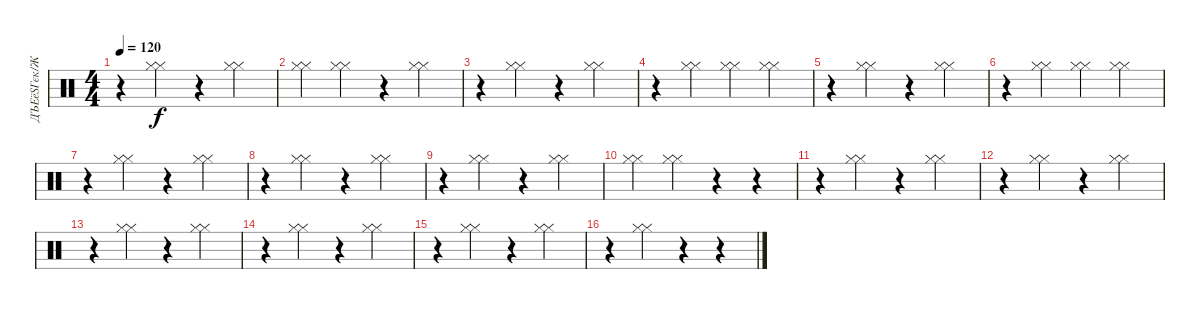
\track ("ДЪЕёЅГєк/ЖК" "ДЪЕёЅГєк/Ж") {instrument percussion}
\staff {score}
\articulation defaults
\ts (4 4)
\tempo 120
\clef neutral
\ks c
r.4{dy f} ("Hi-Hat (closed)" "Hi-Hat (closed)").4 r.4 ("Hi-Hat (closed)" "Hi-Hat (closed)").4 |
("Hi-Hat (closed)" "Hi-Hat (closed)").4 ("Hi-Hat (closed)" "Hi-Hat (closed)").4 r.4 ("Hi-Hat (closed)" "Hi-Hat (closed)").4 |
r.4 ("Hi-Hat (closed)" "Hi-Hat (closed)").4 r.4 ("Hi-Hat (closed)" "Hi-Hat (closed)").4 |
r.4 ("Hi-Hat (closed)" "Hi-Hat (closed)").4 ("Hi-Hat (closed)" "Hi-Hat (closed)").4 ("Hi-Hat (closed)" "Hi-Hat (closed)").4 |
r.4 ("Hi-Hat (closed)" "Hi-Hat (closed)").4 r.4 ("Hi-Hat (closed)" "Hi-Hat (closed)").4 |
r.4 ("Hi-Hat (closed)" "Hi-Hat (closed)").4 ("Hi-Hat (closed)" "Hi-Hat (closed)").4 ("Hi-Hat (closed)" "Hi-Hat (closed)").4 |
r.4 ("Hi-Hat (closed)" "Hi-Hat (closed)").4 r.4 ("Hi-Hat (closed)" "Hi-Hat (closed)").4 |
r.4 ("Hi-Hat (closed)" "Hi-Hat (closed)").4 r.4 ("Hi-Hat (closed)" "Hi-Hat (closed)").4 |
r.4 ("Hi-Hat (closed)" "Hi-Hat (closed)").4 r.4 ("Hi-Hat (closed)" "Hi-Hat (closed)").4 |
("Hi-Hat (closed)" "Hi-Hat (closed)").4 ("Hi-Hat (closed)" "Hi-Hat (closed)").4 r.4 r.4 |
r.4 ("Hi-Hat (closed)" "Hi-Hat (closed)").4 r.4 ("Hi-Hat (closed)" "Hi-Hat (closed)").4 |
r.4 ("Hi-Hat (closed)" "Hi-Hat (closed)").4 r.4 ("Hi-Hat (closed)" "Hi-Hat (closed)").4 |
r.4 ("Hi-Hat (closed)" "Hi-Hat (closed)").4 r.4 ("Hi-Hat (closed)" "Hi-Hat (closed)").4 |
r.4 ("Hi-Hat (closed)" "Hi-Hat (closed)").4 r.4 ("Hi-Hat (closed)" "Hi-Hat (closed)").4 |
r.4 ("Hi-Hat (closed)" "Hi-Hat (closed)").4 r.4 ("Hi-Hat (closed)" "Hi-Hat (closed)").4 |
r.4 ("Hi-Hat (closed)" "Hi-Hat (closed)").4 r.4 r.4
